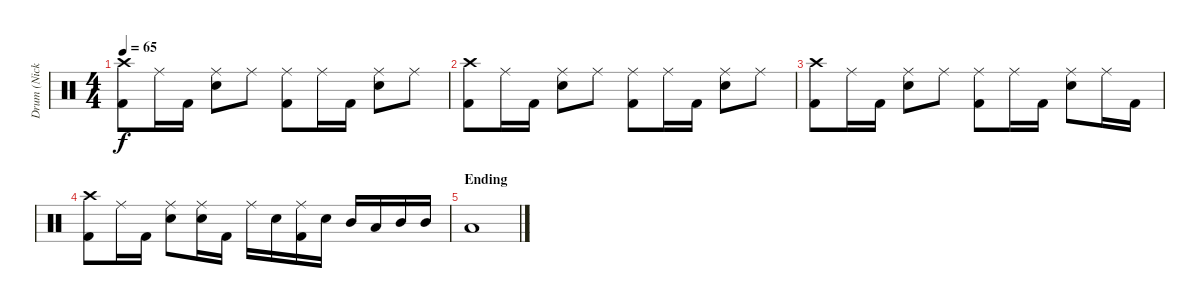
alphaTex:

\track ("Drum (Nick Oshiro)" "Drum (Nick") {instrument percussion}
\staff {score}
\articulation defaults
\ts (4 4)
\tempo 65
\clef neutral
\ks c
("Crash high (hit)" "Kick (hit) 2").8{dy f} "Ride (middle)".16 "Kick (hit) 2".16 ("Ride (middle)" "Electric Snare (hit)").8 "Ride (middle)".8 ("Ride (middle)" "Kick (hit) 2").8 "Ride (middle)".16 "Kick (hit) 2".16 ("Ride (middle)" "Electric Snare (hit)").8 "Ride (middle)".8 |
("Crash high (hit)" "Kick (hit) 2").8 "Ride (middle)".16 "Kick (hit) 2".16 ("Ride (middle)" "Electric Snare (hit)").8 "Ride (middle)".8 ("Ride (middle)" "Kick (hit) 2").8 "Ride (middle)".16 "Kick (hit) 2".16 ("Ride (middle)" "Electric Snare (hit)").8 "Ride (middle)".8 |
("Crash high (hit)" "Kick (hit) 2").8 "Ride (middle)".16 "Kick (hit) 2".16 ("Ride (middle)" "Electric Snare (hit)").8 "Ride (middle)".8 ("Ride (middle)" "Kick (hit) 2").8 "Ride (middle)".16 "Kick (hit) 2".16 ("Ride (middle)" "Electric Snare (hit)").8 "Ride (middle)".16 "Kick (hit) 2".16 |
("Crash high (hit)" "Kick (hit) 2").8 "Ride (middle)".16 "Kick (hit) 2".16 ("Ride (middle)" "Electric Snare (hit)").8 ("Ride (middle)" "Electric Snare (hit)").16 "Kick (hit) 2".16 "Ride (middle)".16 "Electric Snare (hit)".16 ("Ride (middle)" "Kick (hit) 2").16 "Electric Snare (hit)".16 "Mid Tom (hit)".16 "Low Tom (hit)".16 "Mid Tom (hit)".16 "Mid Tom (hit)".16 |
\section ("" "Ending")
"Low Tom (hit)".1
